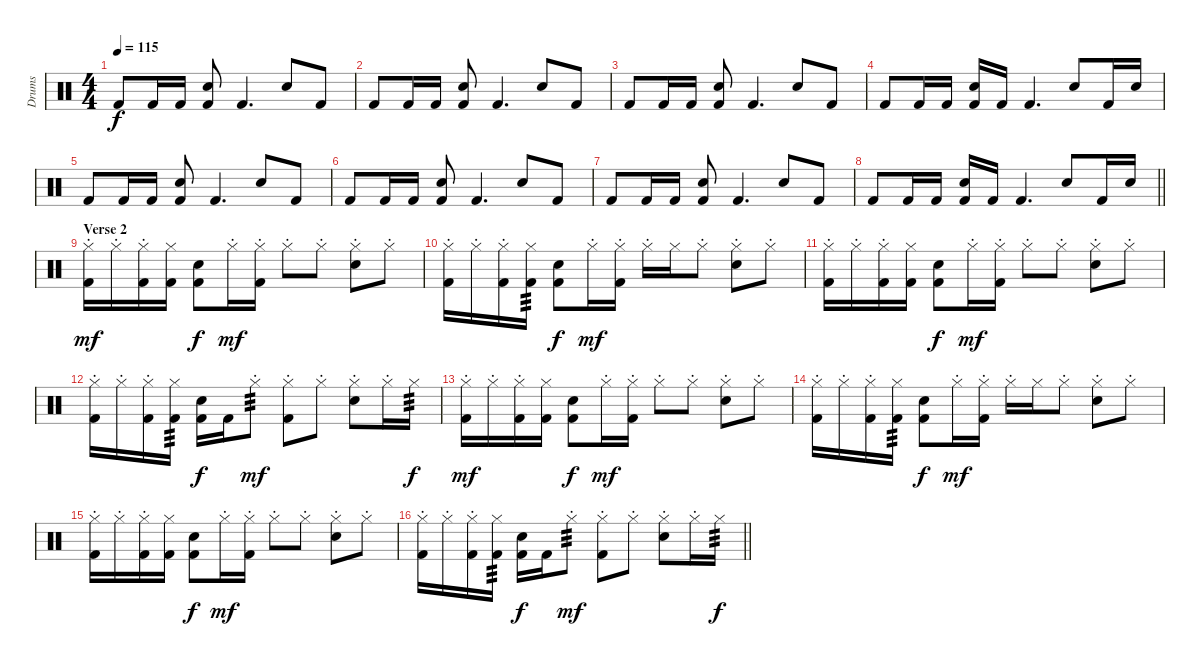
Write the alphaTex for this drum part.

\track ("Drums" "Drums") {instrument percussion}
\staff {score}
\articulation defaults
\ts (4 4)
\tempo 115
\clef neutral
\ks c "Kick (hit) 2".8{dy f} "Kick (hit) 2".16 "Kick (hit) 2".16
("Electric Snare (hit)" "Kick (hit) 2").8 "Kick (hit) 2".4{d} "Electric Snare (hit)".8 "Kick (hit) 2".8 |
"Kick (hit) 2".8 "Kick (hit) 2".16 "Kick (hit) 2".16 ("Electric Snare (hit)" "Kick (hit) 2").8 "Kick (hit) 2".4{d} "Electric Snare (hit)".8 "Kick (hit) 2".8 |
"Kick (hit) 2".8 "Kick (hit) 2".16 "Kick (hit) 2".16 ("Electric Snare (hit)" "Kick (hit) 2").8 "Kick (hit) 2".4{d} "Electric Snare (hit)".8 "Kick (hit) 2".8 |
"Kick (hit) 2".8 "Kick (hit) 2".16 "Kick (hit) 2".16 ("Electric Snare (hit)" "Kick (hit) 2").16 "Kick (hit) 2".16 "Kick (hit) 2".4{d} "Electric Snare (hit)".8 "Kick (hit) 2".16 "Electric Snare (hit)".16 |
"Kick (hit) 2".8 "Kick (hit) 2".16 "Kick (hit) 2".16 ("Electric Snare (hit)" "Kick (hit) 2").8 "Kick (hit) 2".4{d} "Electric Snare (hit)".8 "Kick (hit) 2".8 |
"Kick (hit) 2".8 "Kick (hit) 2".16 "Kick (hit) 2".16 ("Electric Snare (hit)" "Kick (hit) 2").8 "Kick (hit) 2".4{d} "Electric Snare (hit)".8 "Kick (hit) 2".8 |
"Kick (hit) 2".8 "Kick (hit) 2".16 "Kick (hit) 2".16 ("Electric Snare (hit)" "Kick (hit) 2").8 "Kick (hit) 2".4{d} "Electric Snare (hit)".8 "Kick (hit) 2".8 |
\barLineRight lightlight "Kick (hit) 2".8 "Kick (hit) 2".16 "Kick (hit) 2".16
("Electric Snare (hit)" "Kick (hit) 2").16 "Kick (hit) 2".16 "Kick (hit) 2".4{d} "Electric Snare (hit)".8 "Kick (hit) 2".16 "Electric Snare (hit)".16 |
\section ("" "Verse 2")
("Hi-Hat (closed)"{st} "Kick (hit) 2").16{dy mf} "Hi-Hat (closed)"{st}.16 ("Hi-Hat (closed)"{st} "Kick (hit) 2").16 ("Hi-Hat (closed)" "Kick (hit) 2").16 ("Snare (hit) 2" "Kick (hit) 2").8{dy f} "Hi-Hat (closed)"{st}.16{dy mf} ("Hi-Hat (closed)"{st} "Kick (hit) 2").16 "Hi-Hat (closed)"{st}.8 "Hi-Hat (closed)"{st}.8 ("Hi-Hat (closed)"{st} "Snare (hit) 2").8 "Hi-Hat (closed)"{st}.8 |
("Hi-Hat (closed)"{st} "Kick (hit) 2").16 "Hi-Hat (closed)"{st}.16 ("Hi-Hat (closed)"{st} "Kick (hit) 2").16 ("Hi-Hat (closed)" "Kick (hit) 2").16{tp 3} ("Snare (hit) 2" "Kick (hit) 2").8{dy f} "Hi-Hat (closed)"{st}.16{dy mf} ("Hi-Hat (closed)"{st} "Kick (hit) 2").16 "Hi-Hat (closed)"{st}.16 "Hi-Hat (closed)".16 "Hi-Hat (closed)"{st}.8 ("Hi-Hat (closed)"{st} "Snare (hit) 2").8 "Hi-Hat (closed)"{st}.8 |
("Hi-Hat (closed)"{st} "Kick (hit) 2").16 "Hi-Hat (closed)"{st}.16 ("Hi-Hat (closed)"{st} "Kick (hit) 2").16 ("Hi-Hat (closed)" "Kick (hit) 2").16 ("Snare (hit) 2" "Kick (hit) 2").8{dy f} "Hi-Hat (closed)"{st}.16{dy mf} ("Hi-Hat (closed)"{st} "Kick (hit) 2").16 "Hi-Hat (closed)"{st}.8 "Hi-Hat (closed)"{st}.8 ("Hi-Hat (closed)"{st} "Snare (hit) 2").8 "Hi-Hat (closed)"{st}.8 |
("Hi-Hat (closed)"{st} "Kick (hit) 2").16 "Hi-Hat (closed)"{st}.16 ("Hi-Hat (closed)"{st} "Kick (hit) 2").16 ("Hi-Hat (closed)" "Kick (hit) 2").16{tp 3} ("Snare (hit) 2" "Kick (hit) 2").16{dy f} "Kick (hit) 2".16 "Hi-Hat (closed)"{st}.8{tp 3 dy mf} ("Hi-Hat (closed)"{st} "Kick (hit) 2").8 "Hi-Hat (closed)"{st}.8 ("Hi-Hat (closed)"{st} "Snare (hit) 2").8 "Hi-Hat (closed)"{st}.16 "Hi-Hat (closed)".16{tp 3 dy f} |
("Hi-Hat (closed)"{st} "Kick (hit) 2").16{dy mf} "Hi-Hat (closed)"{st}.16 ("Hi-Hat (closed)"{st} "Kick (hit) 2").16 ("Hi-Hat (closed)" "Kick (hit) 2").16 ("Snare (hit) 2" "Kick (hit) 2").8{dy f} "Hi-Hat (closed)"{st}.16{dy mf} ("Hi-Hat (closed)"{st} "Kick (hit) 2").16 "Hi-Hat (closed)"{st}.8 "Hi-Hat (closed)"{st}.8 ("Hi-Hat (closed)"{st} "Snare (hit) 2").8 "Hi-Hat (closed)"{st}.8 |
("Hi-Hat (closed)"{st} "Kick (hit) 2").16 "Hi-Hat (closed)"{st}.16 ("Hi-Hat (closed)"{st} "Kick (hit) 2").16 ("Hi-Hat (closed)" "Kick (hit) 2").16{tp 3} ("Snare (hit) 2" "Kick (hit) 2").8{dy f} "Hi-Hat (closed)"{st}.16{dy mf} ("Hi-Hat (closed)"{st} "Kick (hit) 2").16 "Hi-Hat (closed)"{st}.16 "Hi-Hat (closed)".16 "Hi-Hat (closed)"{st}.8 ("Hi-Hat (closed)"{st} "Snare (hit) 2").8 "Hi-Hat (closed)"{st}.8 |
("Hi-Hat (closed)"{st} "Kick (hit) 2").16 "Hi-Hat (closed)"{st}.16 ("Hi-Hat (closed)"{st} "Kick (hit) 2").16 ("Hi-Hat (closed)" "Kick (hit) 2").16 ("Snare (hit) 2" "Kick (hit) 2").8{dy f} "Hi-Hat (closed)"{st}.16{dy mf} ("Hi-Hat (closed)"{st} "Kick (hit) 2").16 "Hi-Hat (closed)"{st}.8 "Hi-Hat (closed)"{st}.8 ("Hi-Hat (closed)"{st} "Snare (hit) 2").8 "Hi-Hat (closed)"{st}.8 |
\barLineRight lightlight
("Hi-Hat (closed)"{st} "Kick (hit) 2").16 "Hi-Hat (closed)"{st}.16 ("Hi-Hat (closed)"{st} "Kick (hit) 2").16 ("Hi-Hat (closed)" "Kick (hit) 2").16{tp 3} ("Snare (hit) 2" "Kick (hit) 2").16{dy f} "Kick (hit) 2".16 "Hi-Hat (closed)"{st}.8{tp 3 dy mf} ("Hi-Hat (closed)"{st} "Kick (hit) 2").8 "Hi-Hat (closed)"{st}.8 ("Hi-Hat (closed)"{st} "Snare (hit) 2").8 "Hi-Hat (closed)"{st}.16 "Hi-Hat (closed)".16{tp 3 dy f}
